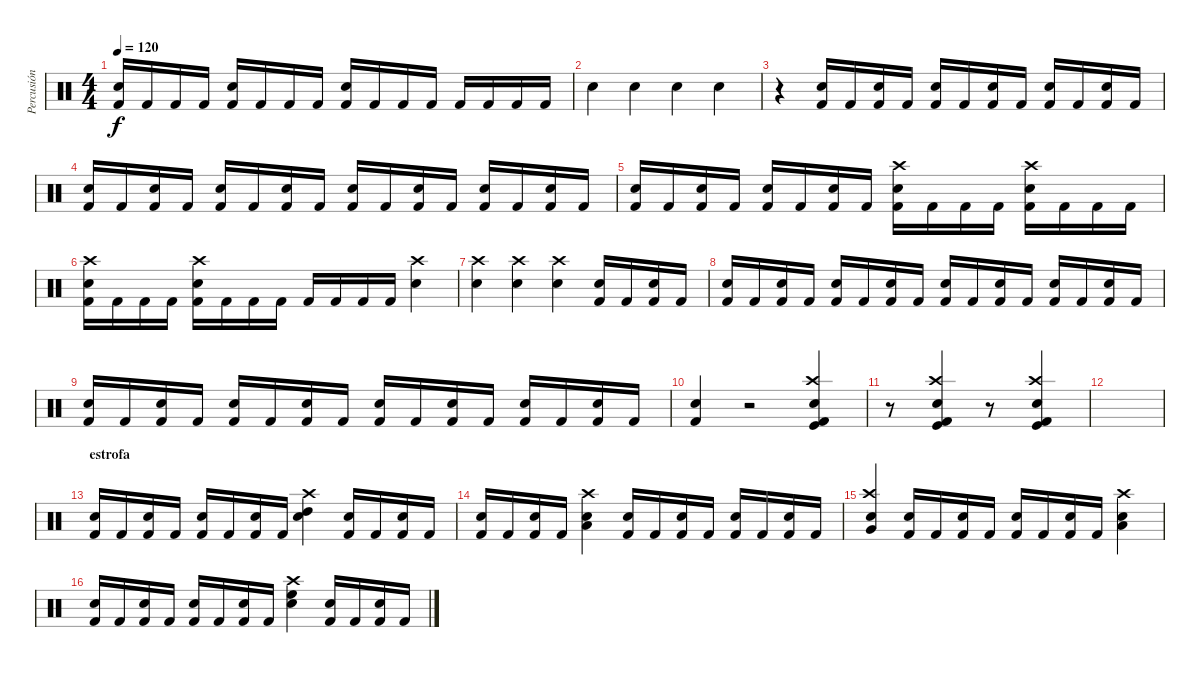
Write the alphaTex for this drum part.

\track ("Percusión" "Percusión") {instrument percussion}
\staff {score}
\articulation defaults
\ts (4 4)
\tempo 120
\clef neutral
\ks c
("Kick (hit) 2" "Electric Snare (hit)").16{dy f} "Kick (hit) 2".16 "Kick (hit) 2".16 "Kick (hit) 2".16 ("Kick (hit) 2" "Electric Snare (hit)").16 "Kick (hit) 2".16 "Kick (hit) 2".16 "Kick (hit) 2".16 ("Kick (hit) 2" "Electric Snare (hit)").16 "Kick (hit) 2".16 "Kick (hit) 2".16 "Kick (hit) 2".16 "Kick (hit) 2".16 "Kick (hit) 2".16 "Kick (hit) 2".16 "Kick (hit) 2".16 |
"Electric Snare (hit)".4 "Electric Snare (hit)".4 "Electric Snare (hit)".4 "Electric Snare (hit)".4 |
r.4 ("Kick (hit) 2" "Electric Snare (hit)").16 "Kick (hit) 2".16 ("Kick (hit) 2" "Electric Snare (hit)").16 "Kick (hit) 2".16 ("Kick (hit) 2" "Electric Snare (hit)").16 "Kick (hit) 2".16 ("Kick (hit) 2" "Electric Snare (hit)").16 "Kick (hit) 2".16 ("Kick (hit) 2" "Electric Snare (hit)").16 "Kick (hit) 2".16 ("Kick (hit) 2" "Electric Snare (hit)").16 "Kick (hit) 2".16 |
("Kick (hit) 2" "Electric Snare (hit)").16 "Kick (hit) 2".16 ("Kick (hit) 2" "Electric Snare (hit)").16 "Kick (hit) 2".16 ("Kick (hit) 2" "Electric Snare (hit)").16 "Kick (hit) 2".16 ("Kick (hit) 2" "Electric Snare (hit)").16 "Kick (hit) 2".16 ("Kick (hit) 2" "Electric Snare (hit)").16 "Kick (hit) 2".16 ("Kick (hit) 2" "Electric Snare (hit)").16 "Kick (hit) 2".16 ("Kick (hit) 2" "Electric Snare (hit)").16 "Kick (hit) 2".16 ("Kick (hit) 2" "Electric Snare (hit)").16 "Kick (hit) 2".16 |
("Kick (hit) 2" "Electric Snare (hit)").16 "Kick (hit) 2".16 ("Kick (hit) 2" "Electric Snare (hit)").16 "Kick (hit) 2".16 ("Kick (hit) 2" "Electric Snare (hit)").16 "Kick (hit) 2".16 ("Kick (hit) 2" "Electric Snare (hit)").16 "Kick (hit) 2".16 ("Crash high (hit)" "Kick (hit) 2" "Electric Snare (hit)").16 "Kick (hit) 2".16 "Kick (hit) 2".16 "Kick (hit) 2".16 ("Crash high (hit)" "Kick (hit) 2" "Electric Snare (hit)").16 "Kick (hit) 2".16 "Kick (hit) 2".16 "Kick (hit) 2".16 |
("Crash high (hit)" "Kick (hit) 2" "Electric Snare (hit)").16 "Kick (hit) 2".16 "Kick (hit) 2".16 "Kick (hit) 2".16 ("Crash high (hit)" "Kick (hit) 2" "Electric Snare (hit)").16 "Kick (hit) 2".16 "Kick (hit) 2".16 "Kick (hit) 2".16 "Kick (hit) 2".16 "Kick (hit) 2".16 "Kick (hit) 2".16 "Kick (hit) 2".16 ("Crash high (hit)" "Electric Snare (hit)").4 |
("Crash high (hit)" "Electric Snare (hit)").4 ("Crash high (hit)" "Electric Snare (hit)").4 ("Crash high (hit)" "Electric Snare (hit)").4 ("Kick (hit) 2" "Electric Snare (hit)").16 "Kick (hit) 2".16 ("Kick (hit) 2" "Electric Snare (hit)").16 "Kick (hit) 2".16 |
("Kick (hit) 2" "Electric Snare (hit)").16 "Kick (hit) 2".16 ("Kick (hit) 2" "Electric Snare (hit)").16 "Kick (hit) 2".16 ("Kick (hit) 2" "Electric Snare (hit)").16 "Kick (hit) 2".16 ("Kick (hit) 2" "Electric Snare (hit)").16 "Kick (hit) 2".16 ("Kick (hit) 2" "Electric Snare (hit)").16 "Kick (hit) 2".16 ("Kick (hit) 2" "Electric Snare (hit)").16 "Kick (hit) 2".16 ("Kick (hit) 2" "Electric Snare (hit)").16 "Kick (hit) 2".16 ("Kick (hit) 2" "Electric Snare (hit)").16 "Kick (hit) 2".16 |
("Kick (hit) 2" "Electric Snare (hit)").16 "Kick (hit) 2".16 ("Kick (hit) 2" "Electric Snare (hit)").16 "Kick (hit) 2".16 ("Kick (hit) 2" "Electric Snare (hit)").16 "Kick (hit) 2".16 ("Kick (hit) 2" "Electric Snare (hit)").16 "Kick (hit) 2".16 ("Kick (hit) 2" "Electric Snare (hit)").16 "Kick (hit) 2".16 ("Kick (hit) 2" "Electric Snare (hit)").16 "Kick (hit) 2".16 ("Kick (hit) 2" "Electric Snare (hit)").16 "Kick (hit) 2".16 ("Kick (hit) 2" "Electric Snare (hit)").16 "Kick (hit) 2".16 |
("Kick (hit) 2" "Electric Snare (hit)").4 r.2 ("Crash high (hit)" "Kick (hit)" "Kick (hit) 2" "Electric Snare (hit)").4 |
r.8 ("Crash high (hit)" "Kick (hit)" "Kick (hit) 2" "Electric Snare (hit)").4 r.8 ("Crash high (hit)" "Kick (hit)" "Kick (hit) 2" "Electric Snare (hit)").4 |
|
\section ("" "estrofa")
("Kick (hit) 2" "Electric Snare (hit)").16 "Kick (hit) 2".16 ("Kick (hit) 2" "Electric Snare (hit)").16 "Kick (hit) 2".16 ("Kick (hit) 2" "Electric Snare (hit)").16 "Kick (hit) 2".16 ("Kick (hit) 2" "Electric Snare (hit)").16 "Kick (hit) 2".16 ("Crash high (hit)" "High Tom (hit)" "Electric Snare (hit)").4 ("Kick (hit) 2" "Electric Snare (hit)").16 "Kick (hit) 2".16 ("Kick (hit) 2" "Electric Snare (hit)").16 "Kick (hit) 2".16 |
("Kick (hit) 2" "Electric Snare (hit)").16 "Kick (hit) 2".16 ("Kick (hit) 2" "Electric Snare (hit)").16 "Kick (hit) 2".16 ("Crash high (hit)" "Low Tom (hit)" "Electric Snare (hit)").4 ("Kick (hit) 2" "Electric Snare (hit)").16 "Kick (hit) 2".16 ("Kick (hit) 2" "Electric Snare (hit)").16 "Kick (hit) 2".16 ("Kick (hit) 2" "Electric Snare (hit)").16 "Kick (hit) 2".16 ("Kick (hit) 2" "Electric Snare (hit)").16 "Kick (hit) 2".16 |
("Crash high (hit)" "Very Low Tom (hit)" "Electric Snare (hit)").4 ("Kick (hit) 2" "Electric Snare (hit)").16 "Kick (hit) 2".16 ("Kick (hit) 2" "Electric Snare (hit)").16 "Kick (hit) 2".16 ("Kick (hit) 2" "Electric Snare (hit)").16 "Kick (hit) 2".16 ("Kick (hit) 2" "Electric Snare (hit)").16 "Kick (hit) 2".16 ("Crash high (hit)" "Low Floor Tom (hit)" "Electric Snare (hit)").4 |
("Kick (hit) 2" "Electric Snare (hit)").16 "Kick (hit) 2".16 ("Kick (hit) 2" "Electric Snare (hit)").16 "Kick (hit) 2".16 ("Kick (hit) 2" "Electric Snare (hit)").16 "Kick (hit) 2".16 ("Kick (hit) 2" "Electric Snare (hit)").16 "Kick (hit) 2".16 ("Crash high (hit)" "High Floor Tom (hit)" "Electric Snare (hit)").4 ("Kick (hit) 2" "Electric Snare (hit)").16 "Kick (hit) 2".16 ("Kick (hit) 2" "Electric Snare (hit)").16 "Kick (hit) 2".16
